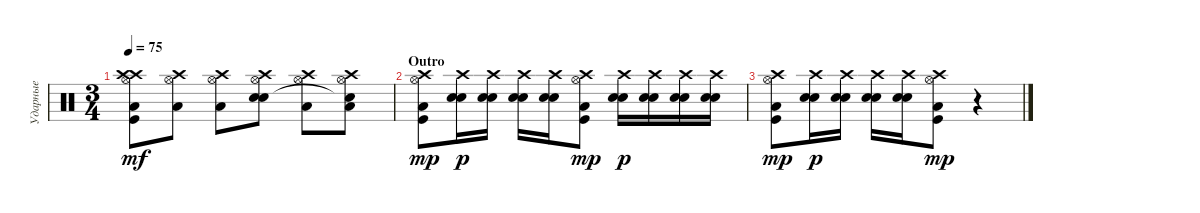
\track ("Ударные" "Ударные") {instrument percussion}
\staff {score}
\articulation defaults
\ts (3 4)
\tempo 75
\clef neutral
\ks c
("Hi-Hat (open)" "Crash high (hit)" "Low Floor Tom (hit)" "Kick (hit)" "Crash high (hit)").8{dy mf} ("Hi-Hat (open)" "Crash high (hit)" "Low Floor Tom (hit)").8 ("Hi-Hat (open)" "Crash high (hit)" "Low Floor Tom (hit)").8 ("Hi-Hat (open)" "Crash high (hit)" "Electric Snare (hit)" "Electric Snare (hit)").8 ("Hi-Hat (open)" "Crash high (hit)" "Low Floor Tom (hit)").8 ("Hi-Hat (open)" "Crash high (hit)" "Low Floor Tom (hit)" "Snare (hit)"{t}).8 |
\section ("" "Outro")
("Hi-Hat (open)" "Low Floor Tom (hit)" "Kick (hit)" "Crash high (hit)").8{dy mp} ("Crash high (hit)" "Electric Snare (hit)" "Electric Snare (hit)").16{dy p} ("Crash high (hit)" "Electric Snare (hit)" "Electric Snare (hit)").16 ("Crash high (hit)" "Electric Snare (hit)" "Electric Snare (hit)").16 ("Crash high (hit)" "Electric Snare (hit)" "Electric Snare (hit)").16 ("Hi-Hat (open)" "Low Floor Tom (hit)" "Kick (hit)" "Crash high (hit)").8{dy mp} ("Crash high (hit)" "Electric Snare (hit)" "Electric Snare (hit)").16{dy p} ("Crash high (hit)" "Electric Snare (hit)" "Electric Snare (hit)").16 ("Crash high (hit)" "Electric Snare (hit)" "Electric Snare (hit)").16 ("Crash high (hit)" "Electric Snare (hit)" "Electric Snare (hit)").16 |
("Hi-Hat (open)" "Low Floor Tom (hit)" "Kick (hit)" "Crash high (hit)").8{dy mp} ("Crash high (hit)" "Electric Snare (hit)" "Electric Snare (hit)").16{dy p} ("Crash high (hit)" "Electric Snare (hit)" "Electric Snare (hit)").16 ("Crash high (hit)" "Electric Snare (hit)" "Electric Snare (hit)").16 ("Crash high (hit)" "Electric Snare (hit)" "Electric Snare (hit)").16 ("Hi-Hat (open)" "Low Floor Tom (hit)" "Kick (hit)" "Crash high (hit)").8{dy mp} r.4
